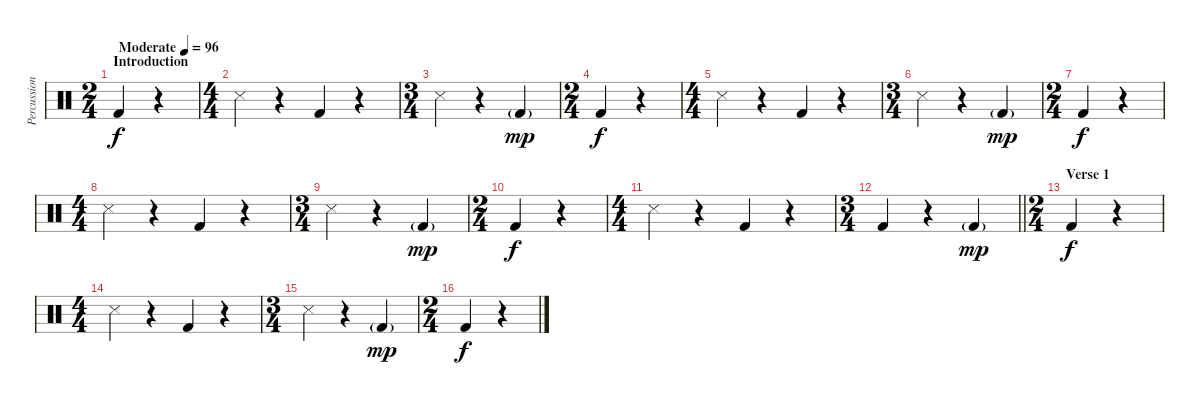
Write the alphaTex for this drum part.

\track ("Percussion" "Percussion") {instrument percussion}
\staff {score}
\articulation defaults
\ts (2 4)
\section ("" "Introduction")
\tempo (96 "Moderate")
\clef neutral
\ks c "Kick (hit) 2".4{dy f}
r.4 |
\ts (4 4)
"Snare (side stick) 3".4 r.4 "Kick (hit) 2".4 r.4 |
\ts (3 4)
"Snare (side stick) 3".4 r.4 "Kick (hit) 2"{g}.4{dy mp} |
\ts (2 4)
"Kick (hit) 2".4{dy f} r.4 |
\ts (4 4)
"Snare (side stick) 3".4 r.4 "Kick (hit) 2".4 r.4 |
\ts (3 4)
"Snare (side stick) 3".4 r.4 "Kick (hit) 2"{g}.4{dy mp} |
\ts (2 4)
"Kick (hit) 2".4{dy f} r.4 |
\ts (4 4)
"Snare (side stick) 3".4 r.4 "Kick (hit) 2".4 r.4 |
\ts (3 4)
"Snare (side stick) 3".4 r.4 "Kick (hit) 2"{g}.4{dy mp} |
\ts (2 4)
"Kick (hit) 2".4{dy f} r.4 |
\ts (4 4)
"Snare (side stick) 3".4 r.4 "Kick (hit) 2".4 r.4 |
\ts (3 4)
\barLineRight lightlight "Kick (hit) 2".4
r.4 "Kick (hit) 2"{g}.4{dy mp} |
\ts (2 4)
\section ("" "Verse 1")
"Kick (hit) 2".4{dy f} r.4 |
\ts (4 4)
"Snare (side stick) 3".4 r.4 "Kick (hit) 2".4 r.4 |
\ts (3 4)
"Snare (side stick) 3".4 r.4 "Kick (hit) 2"{g}.4{dy mp} |
\ts (2 4)
"Kick (hit) 2".4{dy f} r.4
